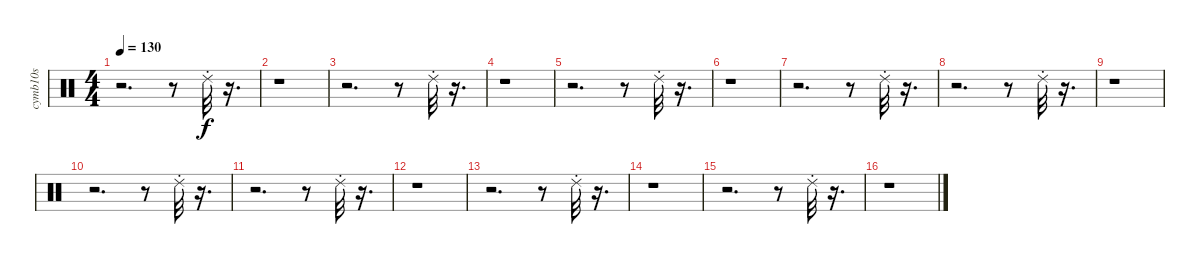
\track ("cymb10s             " "cymb10s   ") {instrument percussion}
\staff {score}
\articulation defaults
\ts (4 4)
\tempo 130
\clef neutral
\ks c
r.2{d dy f} r.8 "Ride (choke) 2".32 r.16{d} |
r.1 |
r.2{d} r.8 "Ride (choke) 2".32 r.16{d} |
r.1 |
r.2{d} r.8 "Ride (choke) 2".32 r.16{d} |
r.1 |
r.2{d} r.8 "Ride (choke) 2".32 r.16{d} |
r.2{d} r.8 "Ride (choke) 2".32 r.16{d} |
r.1 |
r.2{d} r.8 "Ride (choke) 2".32 r.16{d} |
r.2{d} r.8 "Ride (choke) 2".32 r.16{d} |
r.1 |
r.2{d} r.8 "Ride (choke) 2".32 r.16{d} |
r.1 |
r.2{d} r.8 "Ride (choke) 2".32 r.16{d} |
r.1
